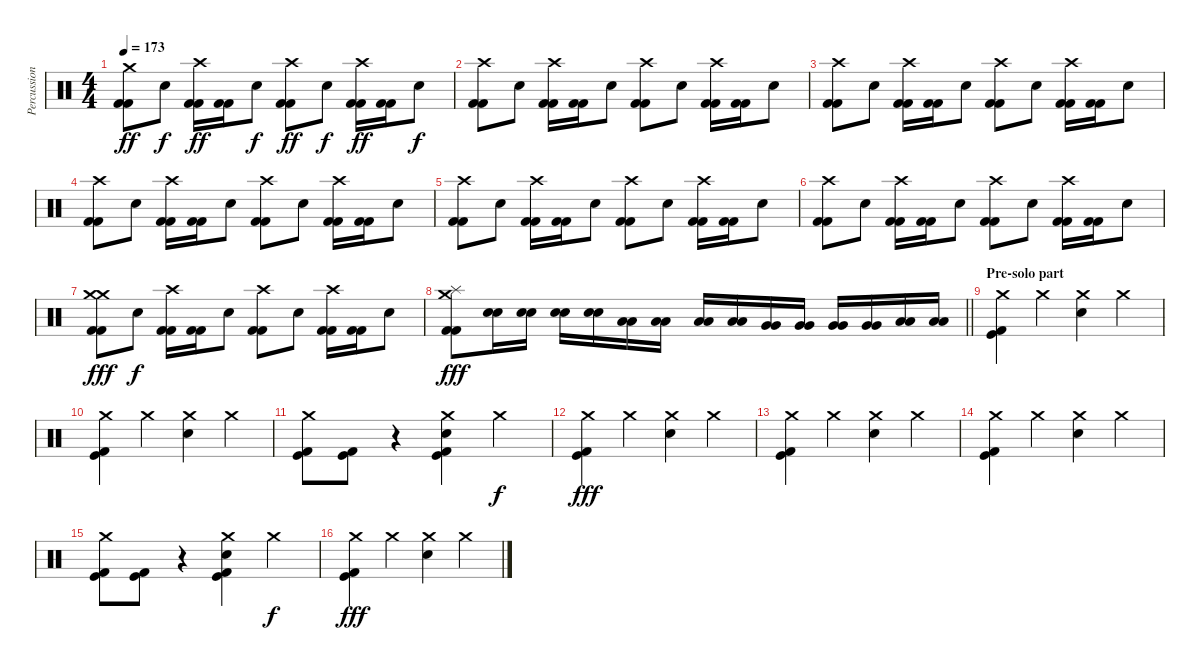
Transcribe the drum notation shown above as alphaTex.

\track ("Percussion" "Percussion") {instrument percussion}
\staff {score}
\articulation defaults
\ts (4 4)
\tempo 173
\clef neutral
\ks c
("Crash medium (hit)" "Kick (hit) 2" "Kick (hit) 2").8{dy ff volume 16} "Electric Snare (hit)".8{dy f} ("Crash high (hit)" "Kick (hit) 2" "Kick (hit) 2").16{dy ff} ("Kick (hit) 2" "Kick (hit) 2").16 "Electric Snare (hit)".8{dy f} ("Crash high (hit)" "Kick (hit) 2" "Kick (hit) 2").8{dy ff} "Electric Snare (hit)".8{dy f} ("Crash high (hit)" "Kick (hit) 2" "Kick (hit) 2").16{dy ff} ("Kick (hit) 2" "Kick (hit) 2").16 "Electric Snare (hit)".8{dy f} |
("Crash high (hit)" "Kick (hit) 2" "Kick (hit) 2").8 "Electric Snare (hit)".8 ("Crash high (hit)" "Kick (hit) 2" "Kick (hit) 2").16 ("Kick (hit) 2" "Kick (hit) 2").16 "Electric Snare (hit)".8 ("Crash high (hit)" "Kick (hit) 2" "Kick (hit) 2").8 "Electric Snare (hit)".8 ("Crash high (hit)" "Kick (hit) 2" "Kick (hit) 2").16 ("Kick (hit) 2" "Kick (hit) 2").16 "Electric Snare (hit)".8 |
("Crash high (hit)" "Kick (hit) 2" "Kick (hit) 2").8 "Electric Snare (hit)".8 ("Crash high (hit)" "Kick (hit) 2" "Kick (hit) 2").16 ("Kick (hit) 2" "Kick (hit) 2").16 "Electric Snare (hit)".8 ("Crash high (hit)" "Kick (hit) 2" "Kick (hit) 2").8 "Electric Snare (hit)".8 ("Crash high (hit)" "Kick (hit) 2" "Kick (hit) 2").16 ("Kick (hit) 2" "Kick (hit) 2").16 "Electric Snare (hit)".8 |
("Crash high (hit)" "Kick (hit) 2" "Kick (hit) 2").8 "Electric Snare (hit)".8 ("Crash high (hit)" "Kick (hit) 2" "Kick (hit) 2").16 ("Kick (hit) 2" "Kick (hit) 2").16 "Electric Snare (hit)".8 ("Crash high (hit)" "Kick (hit) 2" "Kick (hit) 2").8 "Electric Snare (hit)".8 ("Crash high (hit)" "Kick (hit) 2" "Kick (hit) 2").16 ("Kick (hit) 2" "Kick (hit) 2").16 "Electric Snare (hit)".8 |
("Crash high (hit)" "Kick (hit) 2" "Kick (hit) 2").8 "Electric Snare (hit)".8 ("Crash high (hit)" "Kick (hit) 2" "Kick (hit) 2").16 ("Kick (hit) 2" "Kick (hit) 2").16 "Electric Snare (hit)".8 ("Crash high (hit)" "Kick (hit) 2" "Kick (hit) 2").8 "Electric Snare (hit)".8 ("Crash high (hit)" "Kick (hit) 2" "Kick (hit) 2").16 ("Kick (hit) 2" "Kick (hit) 2").16 "Electric Snare (hit)".8 |
("Crash high (hit)" "Kick (hit) 2" "Kick (hit) 2").8 "Electric Snare (hit)".8 ("Crash high (hit)" "Kick (hit) 2" "Kick (hit) 2").16 ("Kick (hit) 2" "Kick (hit) 2").16 "Electric Snare (hit)".8 ("Crash high (hit)" "Kick (hit) 2" "Kick (hit) 2").8 "Electric Snare (hit)".8 ("Crash high (hit)" "Kick (hit) 2" "Kick (hit) 2").16 ("Kick (hit) 2" "Kick (hit) 2").16 "Electric Snare (hit)".8 |
("Crash medium (hit)" "Crash medium (hit)" "Kick (hit) 2" "Kick (hit) 2").8{dy fff} "Electric Snare (hit)".8{dy f} ("Crash high (hit)" "Kick (hit) 2" "Kick (hit) 2").16 ("Kick (hit) 2" "Kick (hit) 2").16 "Electric Snare (hit)".8 ("Crash high (hit)" "Kick (hit) 2" "Kick (hit) 2").8 "Electric Snare (hit)".8 ("Crash high (hit)" "Kick (hit) 2" "Kick (hit) 2").16 ("Kick (hit) 2" "Kick (hit) 2").16 "Electric Snare (hit)".8 |
\barLineRight lightlight
("Crash medium (hit)" "Splash (hit)" "Kick (hit) 2" "Kick (hit) 2").8{dy fff} ("Electric Snare (hit)" "Snare (hit) 2").16 ("Electric Snare (hit)" "Snare (hit) 2").16 ("Electric Snare (hit)" "Snare (hit) 2").16 ("Electric Snare (hit)" "Snare (hit) 2").16 ("Low Tom (hit)" "Low Tom (hit)").16 ("Low Tom (hit)" "Low Tom (hit)").16 ("Low Tom (hit)" "Low Tom (hit)").16 ("Low Tom (hit)" "Low Tom (hit)").16 ("Very Low Tom (hit)" "Very Low Tom (hit)").16 ("Very Low Tom (hit)" "Very Low Tom (hit)").16 ("Very Low Tom (hit)" "Very Low Tom (hit)").16 ("Very Low Tom (hit)" "Very Low Tom (hit)").16 ("Low Floor Tom (hit)" "Low Floor Tom (hit)").16 ("Low Floor Tom (hit)" "Low Floor Tom (hit)").16 |
\section ("" "Pre-solo part")
("Crash medium (hit)" "Kick (hit)" "Kick (hit) 2").4 "Crash medium (hit)".4 ("Crash medium (hit)" "Electric Snare (hit)").4 "Crash medium (hit)".4 |
("Crash medium (hit)" "Kick (hit)" "Kick (hit) 2").4 "Crash medium (hit)".4 ("Crash medium (hit)" "Electric Snare (hit)").4 "Crash medium (hit)".4 |
("Crash medium (hit)" "Kick (hit)" "Kick (hit) 2").8 ("Kick (hit)" "Kick (hit) 2").8 r.4 ("Crash medium (hit)" "Electric Snare (hit)" "Kick (hit)" "Kick (hit) 2").4 "Crash medium (hit)".4{dy f} |
("Crash medium (hit)" "Kick (hit)" "Kick (hit) 2").4{dy fff} "Crash medium (hit)".4 ("Crash medium (hit)" "Electric Snare (hit)").4 "Crash medium (hit)".4 |
("Crash medium (hit)" "Kick (hit)" "Kick (hit) 2").4 "Crash medium (hit)".4 ("Crash medium (hit)" "Electric Snare (hit)").4 "Crash medium (hit)".4 |
("Crash medium (hit)" "Kick (hit)" "Kick (hit) 2").4 "Crash medium (hit)".4 ("Crash medium (hit)" "Electric Snare (hit)").4 "Crash medium (hit)".4 |
("Crash medium (hit)" "Kick (hit)" "Kick (hit) 2").8 ("Kick (hit)" "Kick (hit) 2").8 r.4 ("Crash medium (hit)" "Electric Snare (hit)" "Kick (hit)" "Kick (hit) 2").4 "Crash medium (hit)".4{dy f} |
("Crash medium (hit)" "Kick (hit)" "Kick (hit) 2").4{dy fff} "Crash medium (hit)".4 ("Crash medium (hit)" "Electric Snare (hit)").4 "Crash medium (hit)".4
